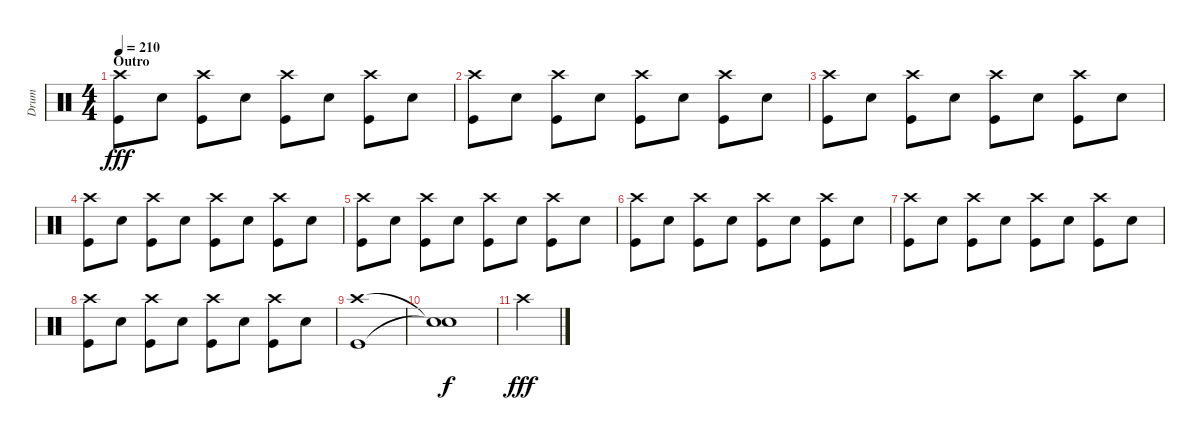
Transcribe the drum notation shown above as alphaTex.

\track ("Drum" "Drum") {instrument percussion}
\staff
\articulation defaults
\ts (4 4)
\section ("" "Outro")
\tempo 210
\clef neutral
\ks c
("Crash high (hit)" "Kick (hit)").8{dy fff} "Snare (hit) 2".8 ("Crash high (hit)" "Kick (hit)").8 "Snare (hit) 2".8 ("Crash high (hit)" "Kick (hit)").8 "Snare (hit) 2".8 ("Crash high (hit)" "Kick (hit)").8 "Snare (hit) 2".8 |
("Crash high (hit)" "Kick (hit)").8 "Snare (hit) 2".8 ("Crash high (hit)" "Kick (hit)").8 "Snare (hit) 2".8 ("Crash high (hit)" "Kick (hit)").8 "Snare (hit) 2".8 ("Crash high (hit)" "Kick (hit)").8 "Snare (hit) 2".8 |
("Crash high (hit)" "Kick (hit)").8 "Snare (hit) 2".8 ("Crash high (hit)" "Kick (hit)").8 "Snare (hit) 2".8 ("Crash high (hit)" "Kick (hit)").8 "Snare (hit) 2".8 ("Crash high (hit)" "Kick (hit)").8 "Snare (hit) 2".8 |
("Crash high (hit)" "Kick (hit)").8 "Snare (hit) 2".8 ("Crash high (hit)" "Kick (hit)").8 "Snare (hit) 2".8 ("Crash high (hit)" "Kick (hit)").8 "Snare (hit) 2".8 ("Crash high (hit)" "Kick (hit)").8 "Snare (hit) 2".8 |
("Crash high (hit)" "Kick (hit)").8 "Snare (hit) 2".8 ("Crash high (hit)" "Kick (hit)").8 "Snare (hit) 2".8 ("Crash high (hit)" "Kick (hit)").8 "Snare (hit) 2".8 ("Crash high (hit)" "Kick (hit)").8 "Snare (hit) 2".8 |
("Crash high (hit)" "Kick (hit)").8 "Snare (hit) 2".8 ("Crash high (hit)" "Kick (hit)").8 "Snare (hit) 2".8 ("Crash high (hit)" "Kick (hit)").8 "Snare (hit) 2".8 ("Crash high (hit)" "Kick (hit)").8 "Snare (hit) 2".8 |
("Crash high (hit)" "Kick (hit)").8 "Snare (hit) 2".8 ("Crash high (hit)" "Kick (hit)").8 "Snare (hit) 2".8 ("Crash high (hit)" "Kick (hit)").8 "Snare (hit) 2".8 ("Crash high (hit)" "Kick (hit)").8 "Snare (hit) 2".8 |
("Crash high (hit)" "Kick (hit)").8 "Snare (hit) 2".8 ("Crash high (hit)" "Kick (hit)").8 "Snare (hit) 2".8 ("Crash high (hit)" "Kick (hit)").8 "Snare (hit) 2".8 ("Crash high (hit)" "Kick (hit)").8 "Snare (hit) 2".8 |
("Crash high (hit)" "Kick (hit)").1 |
("Snare (hit)"{t} "Snare (hit)"{t}).1{dy f} |
"Crash high (hit)".4{dy fff}
